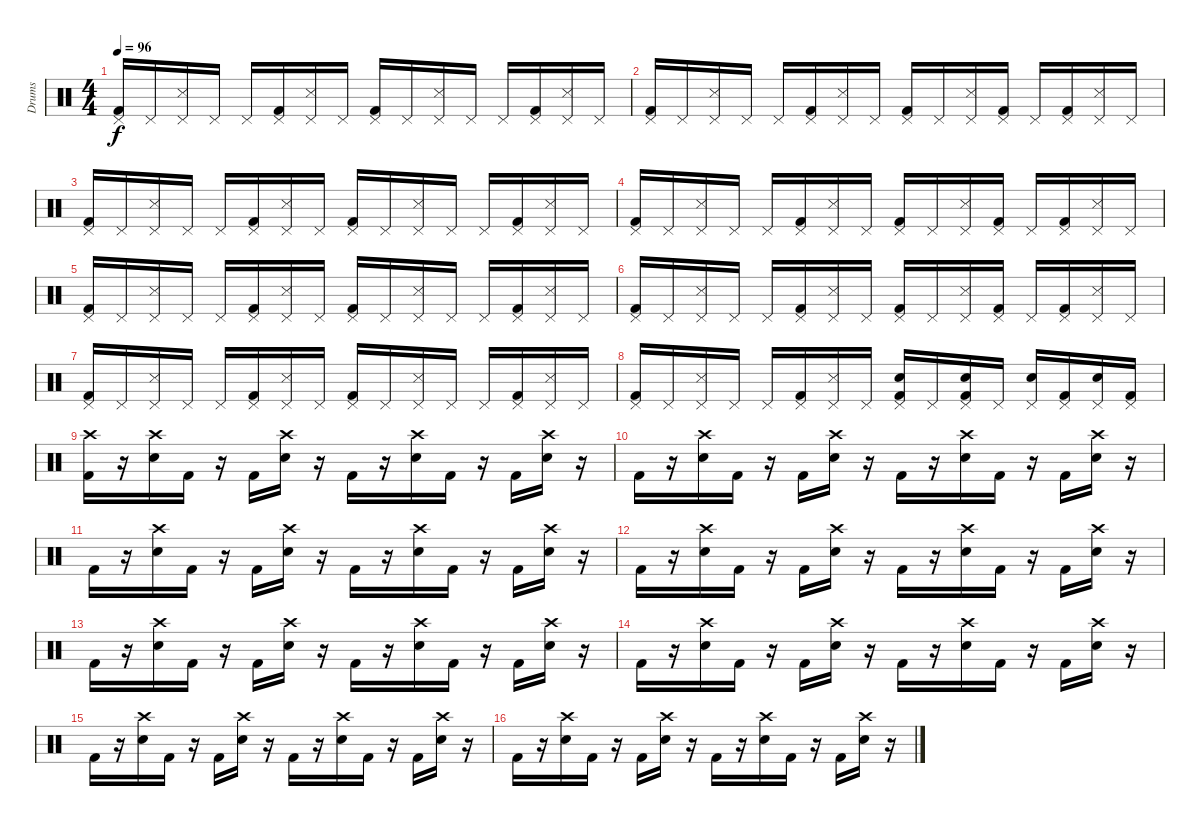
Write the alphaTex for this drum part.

\track ("Drums" "Drums") {instrument percussion}
\staff {score}
\articulation defaults
\ts (4 4)
\tempo 96
\clef neutral
\ks c
("Pedal Hi-Hat (hit)" "Kick (hit) 2").16{dy f} "Pedal Hi-Hat (hit)".16 ("Pedal Hi-Hat (hit)" "Snare (side stick) 3").16 "Pedal Hi-Hat (hit)".16 "Pedal Hi-Hat (hit)".16 ("Pedal Hi-Hat (hit)" "Kick (hit) 2").16 ("Pedal Hi-Hat (hit)" "Snare (side stick) 3").16 "Pedal Hi-Hat (hit)".16 ("Pedal Hi-Hat (hit)" "Kick (hit) 2").16 "Pedal Hi-Hat (hit)".16 ("Pedal Hi-Hat (hit)" "Snare (side stick) 3").16 "Pedal Hi-Hat (hit)".16 "Pedal Hi-Hat (hit)".16 ("Pedal Hi-Hat (hit)" "Kick (hit) 2").16 ("Pedal Hi-Hat (hit)" "Snare (side stick) 3").16 "Pedal Hi-Hat (hit)".16 |
("Pedal Hi-Hat (hit)" "Kick (hit) 2").16 "Pedal Hi-Hat (hit)".16 ("Pedal Hi-Hat (hit)" "Snare (side stick) 3").16 "Pedal Hi-Hat (hit)".16 "Pedal Hi-Hat (hit)".16 ("Pedal Hi-Hat (hit)" "Kick (hit) 2").16 ("Pedal Hi-Hat (hit)" "Snare (side stick) 3").16 "Pedal Hi-Hat (hit)".16 ("Pedal Hi-Hat (hit)" "Kick (hit) 2").16 "Pedal Hi-Hat (hit)".16 ("Pedal Hi-Hat (hit)" "Snare (side stick) 3").16 ("Pedal Hi-Hat (hit)" "Kick (hit) 2").16 "Pedal Hi-Hat (hit)".16 ("Pedal Hi-Hat (hit)" "Kick (hit) 2").16 ("Pedal Hi-Hat (hit)" "Snare (side stick) 3").16 "Pedal Hi-Hat (hit)".16 |
("Pedal Hi-Hat (hit)" "Kick (hit) 2").16 "Pedal Hi-Hat (hit)".16 ("Pedal Hi-Hat (hit)" "Snare (side stick) 3").16 "Pedal Hi-Hat (hit)".16 "Pedal Hi-Hat (hit)".16 ("Pedal Hi-Hat (hit)" "Kick (hit) 2").16 ("Pedal Hi-Hat (hit)" "Snare (side stick) 3").16 "Pedal Hi-Hat (hit)".16 ("Pedal Hi-Hat (hit)" "Kick (hit) 2").16 "Pedal Hi-Hat (hit)".16 ("Pedal Hi-Hat (hit)" "Snare (side stick) 3").16 "Pedal Hi-Hat (hit)".16 "Pedal Hi-Hat (hit)".16 ("Pedal Hi-Hat (hit)" "Kick (hit) 2").16 ("Pedal Hi-Hat (hit)" "Snare (side stick) 3").16 "Pedal Hi-Hat (hit)".16 |
("Pedal Hi-Hat (hit)" "Kick (hit) 2").16 "Pedal Hi-Hat (hit)".16 ("Pedal Hi-Hat (hit)" "Snare (side stick) 3").16 "Pedal Hi-Hat (hit)".16 "Pedal Hi-Hat (hit)".16 ("Pedal Hi-Hat (hit)" "Kick (hit) 2").16 ("Pedal Hi-Hat (hit)" "Snare (side stick) 3").16 "Pedal Hi-Hat (hit)".16 ("Pedal Hi-Hat (hit)" "Kick (hit) 2").16 "Pedal Hi-Hat (hit)".16 ("Pedal Hi-Hat (hit)" "Snare (side stick) 3").16 ("Pedal Hi-Hat (hit)" "Kick (hit) 2").16 "Pedal Hi-Hat (hit)".16 ("Pedal Hi-Hat (hit)" "Kick (hit) 2").16 ("Pedal Hi-Hat (hit)" "Snare (side stick) 3").16 "Pedal Hi-Hat (hit)".16 |
("Pedal Hi-Hat (hit)" "Kick (hit) 2").16 "Pedal Hi-Hat (hit)".16 ("Pedal Hi-Hat (hit)" "Snare (side stick) 3").16 "Pedal Hi-Hat (hit)".16 "Pedal Hi-Hat (hit)".16 ("Pedal Hi-Hat (hit)" "Kick (hit) 2").16 ("Pedal Hi-Hat (hit)" "Snare (side stick) 3").16 "Pedal Hi-Hat (hit)".16 ("Pedal Hi-Hat (hit)" "Kick (hit) 2").16 "Pedal Hi-Hat (hit)".16 ("Pedal Hi-Hat (hit)" "Snare (side stick) 3").16 "Pedal Hi-Hat (hit)".16 "Pedal Hi-Hat (hit)".16 ("Pedal Hi-Hat (hit)" "Kick (hit) 2").16 ("Pedal Hi-Hat (hit)" "Snare (side stick) 3").16 "Pedal Hi-Hat (hit)".16 |
("Pedal Hi-Hat (hit)" "Kick (hit) 2").16 "Pedal Hi-Hat (hit)".16 ("Pedal Hi-Hat (hit)" "Snare (side stick) 3").16 "Pedal Hi-Hat (hit)".16 "Pedal Hi-Hat (hit)".16 ("Pedal Hi-Hat (hit)" "Kick (hit) 2").16 ("Pedal Hi-Hat (hit)" "Snare (side stick) 3").16 "Pedal Hi-Hat (hit)".16 ("Pedal Hi-Hat (hit)" "Kick (hit) 2").16 "Pedal Hi-Hat (hit)".16 ("Pedal Hi-Hat (hit)" "Snare (side stick) 3").16 ("Pedal Hi-Hat (hit)" "Kick (hit) 2").16 "Pedal Hi-Hat (hit)".16 ("Pedal Hi-Hat (hit)" "Kick (hit) 2").16 ("Pedal Hi-Hat (hit)" "Snare (side stick) 3").16 "Pedal Hi-Hat (hit)".16 |
("Pedal Hi-Hat (hit)" "Kick (hit) 2").16 "Pedal Hi-Hat (hit)".16 ("Pedal Hi-Hat (hit)" "Snare (side stick) 3").16 "Pedal Hi-Hat (hit)".16 "Pedal Hi-Hat (hit)".16 ("Pedal Hi-Hat (hit)" "Kick (hit) 2").16 ("Pedal Hi-Hat (hit)" "Snare (side stick) 3").16 "Pedal Hi-Hat (hit)".16 ("Pedal Hi-Hat (hit)" "Kick (hit) 2").16 "Pedal Hi-Hat (hit)".16 ("Pedal Hi-Hat (hit)" "Snare (side stick) 3").16 "Pedal Hi-Hat (hit)".16 "Pedal Hi-Hat (hit)".16 ("Pedal Hi-Hat (hit)" "Kick (hit) 2").16 ("Pedal Hi-Hat (hit)" "Snare (side stick) 3").16 "Pedal Hi-Hat (hit)".16 |
("Pedal Hi-Hat (hit)" "Kick (hit) 2").16 "Pedal Hi-Hat (hit)".16 ("Pedal Hi-Hat (hit)" "Snare (side stick) 3").16 "Pedal Hi-Hat (hit)".16 "Pedal Hi-Hat (hit)".16 ("Pedal Hi-Hat (hit)" "Kick (hit) 2").16 ("Pedal Hi-Hat (hit)" "Snare (side stick) 3").16 "Pedal Hi-Hat (hit)".16 ("Pedal Hi-Hat (hit)" "Electric Snare (hit)" "Kick (hit) 2").16 "Pedal Hi-Hat (hit)".16 ("Pedal Hi-Hat (hit)" "Electric Snare (hit)" "Kick (hit) 2").16 "Pedal Hi-Hat (hit)".16 ("Pedal Hi-Hat (hit)" "Electric Snare (hit)").16 ("Pedal Hi-Hat (hit)" "Kick (hit) 2").16 ("Pedal Hi-Hat (hit)" "Electric Snare (hit)").16 ("Pedal Hi-Hat (hit)" "Kick (hit) 2").16 |
("Crash high (hit)" "Kick (hit) 2").16 r.16 ("Crash high (hit)" "Electric Snare (hit)").16 "Kick (hit) 2".16 r.16 "Kick (hit) 2".16 ("Crash high (hit)" "Electric Snare (hit)").16 r.16 "Kick (hit) 2".16 r.16 ("Crash high (hit)" "Electric Snare (hit)").16 "Kick (hit) 2".16 r.16 "Kick (hit) 2".16 ("Crash high (hit)" "Electric Snare (hit)").16 r.16 |
"Kick (hit) 2".16 r.16 ("Crash high (hit)" "Electric Snare (hit)").16 "Kick (hit) 2".16 r.16 "Kick (hit) 2".16 ("Crash high (hit)" "Electric Snare (hit)").16 r.16 "Kick (hit) 2".16 r.16 ("Crash high (hit)" "Electric Snare (hit)").16 "Kick (hit) 2".16 r.16 "Kick (hit) 2".16 ("Crash high (hit)" "Electric Snare (hit)").16 r.16 |
"Kick (hit) 2".16 r.16 ("Crash high (hit)" "Electric Snare (hit)").16 "Kick (hit) 2".16 r.16 "Kick (hit) 2".16 ("Crash high (hit)" "Electric Snare (hit)").16 r.16 "Kick (hit) 2".16 r.16 ("Crash high (hit)" "Electric Snare (hit)").16 "Kick (hit) 2".16 r.16 "Kick (hit) 2".16 ("Crash high (hit)" "Electric Snare (hit)").16 r.16 |
"Kick (hit) 2".16 r.16 ("Crash high (hit)" "Electric Snare (hit)").16 "Kick (hit) 2".16 r.16 "Kick (hit) 2".16 ("Crash high (hit)" "Electric Snare (hit)").16 r.16 "Kick (hit) 2".16 r.16 ("Crash high (hit)" "Electric Snare (hit)").16 "Kick (hit) 2".16 r.16 "Kick (hit) 2".16 ("Crash high (hit)" "Electric Snare (hit)").16 r.16 |
"Kick (hit) 2".16 r.16 ("Crash high (hit)" "Electric Snare (hit)").16 "Kick (hit) 2".16 r.16 "Kick (hit) 2".16 ("Crash high (hit)" "Electric Snare (hit)").16 r.16 "Kick (hit) 2".16 r.16 ("Crash high (hit)" "Electric Snare (hit)").16 "Kick (hit) 2".16 r.16 "Kick (hit) 2".16 ("Crash high (hit)" "Electric Snare (hit)").16 r.16 |
"Kick (hit) 2".16 r.16 ("Crash high (hit)" "Electric Snare (hit)").16 "Kick (hit) 2".16 r.16 "Kick (hit) 2".16 ("Crash high (hit)" "Electric Snare (hit)").16 r.16 "Kick (hit) 2".16 r.16 ("Crash high (hit)" "Electric Snare (hit)").16 "Kick (hit) 2".16 r.16 "Kick (hit) 2".16 ("Crash high (hit)" "Electric Snare (hit)").16 r.16 |
"Kick (hit) 2".16 r.16 ("Crash high (hit)" "Electric Snare (hit)").16 "Kick (hit) 2".16 r.16 "Kick (hit) 2".16 ("Crash high (hit)" "Electric Snare (hit)").16 r.16 "Kick (hit) 2".16 r.16 ("Crash high (hit)" "Electric Snare (hit)").16 "Kick (hit) 2".16 r.16 "Kick (hit) 2".16 ("Crash high (hit)" "Electric Snare (hit)").16 r.16 |
"Kick (hit) 2".16 r.16 ("Crash high (hit)" "Electric Snare (hit)").16 "Kick (hit) 2".16 r.16 "Kick (hit) 2".16 ("Crash high (hit)" "Electric Snare (hit)").16 r.16 "Kick (hit) 2".16 r.16 ("Crash high (hit)" "Electric Snare (hit)").16 "Kick (hit) 2".16 r.16 "Kick (hit) 2".16 ("Crash high (hit)" "Electric Snare (hit)").16 r.16
